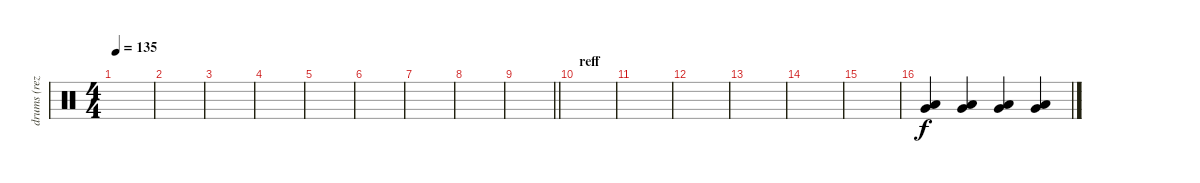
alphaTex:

\track ("drums (reza)" "drums (rez") {instrument percussion}
\staff {score}
\articulation defaults
\ts (4 4)
\tempo 135
\clef neutral
\ks c
|
|
|
|
|
|
|
|
\barLineRight lightlight
|
\section ("" "reff")
|
|
|
|
|
|
("Low Tom (hit)" "Very Low Tom (hit)").4 ("Low Tom (hit)" "Very Low Tom (hit)").4 ("Low Tom (hit)" "Very Low Tom (hit)").4 ("Low Tom (hit)" "Very Low Tom (hit)").4
